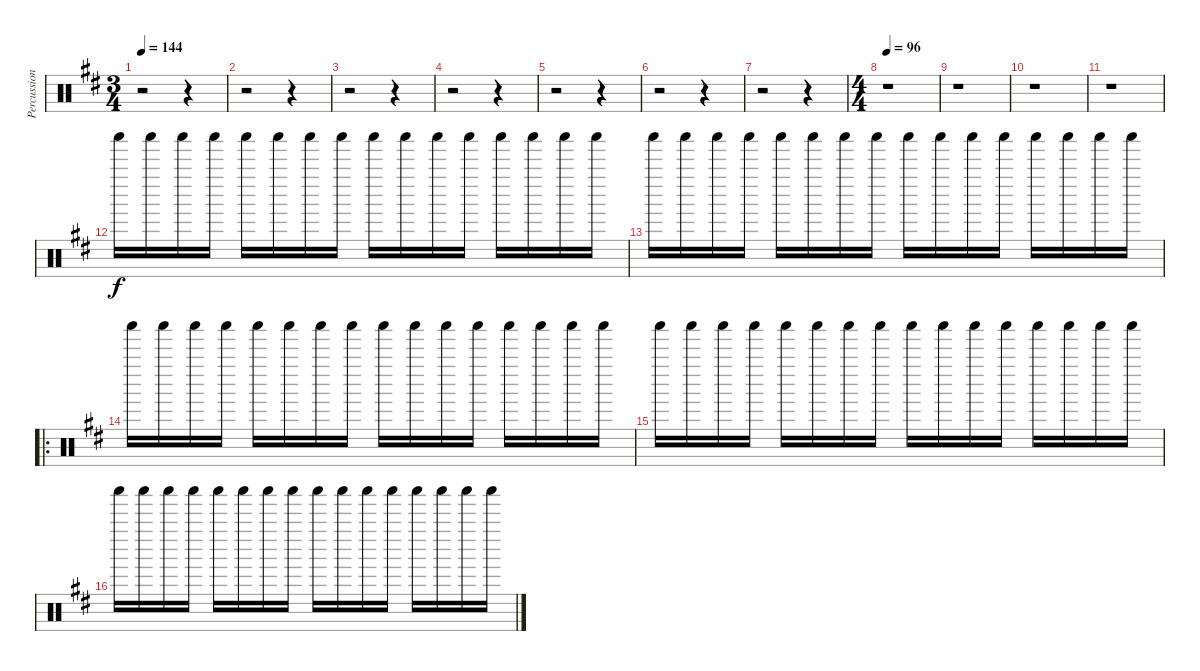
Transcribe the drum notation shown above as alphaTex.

\track ("Percussion" "Percussion") {instrument percussion}
\staff {score}
\articulation defaults
\ts (3 4)
\tempo 144
\clef neutral
\ks d
r.2{dy f} r.4 |
r.2 r.4 |
r.2 r.4 |
r.2 r.4 |
r.2 r.4 |
r.2 r.4 |
r.2 r.4 |
\ts (4 4)
\tempo 96
r.1 |
r.1 |
r.1 |
r.1 |
"Shaker (hit)".16 "Shaker (hit)".16 "Shaker (hit)".16 "Shaker (hit)".16 "Shaker (hit)".16 "Shaker (hit)".16 "Shaker (hit)".16 "Shaker (hit)".16 "Shaker (hit)".16 "Shaker (hit)".16 "Shaker (hit)".16 "Shaker (hit)".16 "Shaker (hit)".16 "Shaker (hit)".16 "Shaker (hit)".16 "Shaker (hit)".16 |
"Shaker (hit)".16 "Shaker (hit)".16 "Shaker (hit)".16 "Shaker (hit)".16 "Shaker (hit)".16 "Shaker (hit)".16 "Shaker (hit)".16 "Shaker (hit)".16 "Shaker (hit)".16 "Shaker (hit)".16 "Shaker (hit)".16 "Shaker (hit)".16 "Shaker (hit)".16 "Shaker (hit)".16 "Shaker (hit)".16 "Shaker (hit)".16 |
\ro "Shaker (hit)".16 "Shaker (hit)".16 "Shaker (hit)".16 "Shaker (hit)".16 "Shaker (hit)".16 "Shaker (hit)".16 "Shaker (hit)".16 "Shaker (hit)".16 "Shaker (hit)".16 "Shaker (hit)".16 "Shaker (hit)".16 "Shaker (hit)".16 "Shaker (hit)".16 "Shaker (hit)".16 "Shaker (hit)".16 "Shaker (hit)".16
|
"Shaker (hit)".16 "Shaker (hit)".16 "Shaker (hit)".16 "Shaker (hit)".16 "Shaker (hit)".16 "Shaker (hit)".16 "Shaker (hit)".16 "Shaker (hit)".16 "Shaker (hit)".16 "Shaker (hit)".16 "Shaker (hit)".16 "Shaker (hit)".16 "Shaker (hit)".16 "Shaker (hit)".16 "Shaker (hit)".16 "Shaker (hit)".16 |
"Shaker (hit)".16 "Shaker (hit)".16 "Shaker (hit)".16 "Shaker (hit)".16 "Shaker (hit)".16 "Shaker (hit)".16 "Shaker (hit)".16 "Shaker (hit)".16 "Shaker (hit)".16 "Shaker (hit)".16 "Shaker (hit)".16 "Shaker (hit)".16 "Shaker (hit)".16 "Shaker (hit)".16 "Shaker (hit)".16 "Shaker (hit)".16
